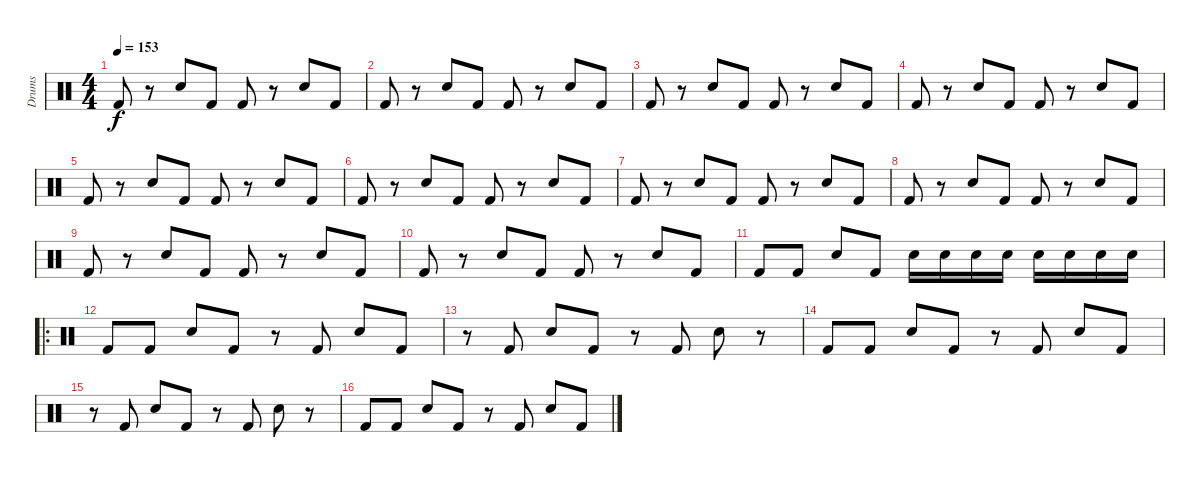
\track ("Drums" "Drums") {instrument percussion}
\staff {score}
\articulation defaults
\ts (4 4)
\tempo 153
\clef neutral
\ks c "Kick (hit) 2".8{dy f}
r.8 "Snare (hit) 2".8 "Kick (hit) 2".8 "Kick (hit) 2".8 r.8 "Snare (hit) 2".8 "Kick (hit) 2".8 |
"Kick (hit) 2".8 r.8 "Snare (hit) 2".8 "Kick (hit) 2".8 "Kick (hit) 2".8 r.8 "Snare (hit) 2".8 "Kick (hit) 2".8 |
"Kick (hit) 2".8 r.8 "Snare (hit) 2".8 "Kick (hit) 2".8 "Kick (hit) 2".8 r.8 "Snare (hit) 2".8 "Kick (hit) 2".8 |
"Kick (hit) 2".8 r.8 "Snare (hit) 2".8 "Kick (hit) 2".8 "Kick (hit) 2".8 r.8 "Snare (hit) 2".8 "Kick (hit) 2".8 |
"Kick (hit) 2".8 r.8 "Snare (hit) 2".8 "Kick (hit) 2".8 "Kick (hit) 2".8 r.8 "Snare (hit) 2".8 "Kick (hit) 2".8 |
"Kick (hit) 2".8 r.8 "Snare (hit) 2".8 "Kick (hit) 2".8 "Kick (hit) 2".8 r.8 "Snare (hit) 2".8 "Kick (hit) 2".8 |
"Kick (hit) 2".8 r.8 "Snare (hit) 2".8 "Kick (hit) 2".8 "Kick (hit) 2".8 r.8 "Snare (hit) 2".8 "Kick (hit) 2".8 |
"Kick (hit) 2".8 r.8 "Snare (hit) 2".8 "Kick (hit) 2".8 "Kick (hit) 2".8 r.8 "Snare (hit) 2".8 "Kick (hit) 2".8 |
"Kick (hit) 2".8 r.8 "Snare (hit) 2".8 "Kick (hit) 2".8 "Kick (hit) 2".8 r.8 "Snare (hit) 2".8 "Kick (hit) 2".8 |
"Kick (hit) 2".8 r.8 "Snare (hit) 2".8 "Kick (hit) 2".8 "Kick (hit) 2".8 r.8 "Snare (hit) 2".8 "Kick (hit) 2".8 |
"Kick (hit) 2".8 "Kick (hit) 2".8 "Snare (hit) 2".8 "Kick (hit) 2".8 "Snare (hit) 2".16 "Snare (hit) 2".16 "Snare (hit) 2".16 "Snare (hit) 2".16 "Snare (hit) 2".16 "Snare (hit) 2".16 "Snare (hit) 2".16 "Snare (hit) 2".16 |
\ro "Kick (hit) 2".8 "Kick (hit) 2".8 "Snare (hit) 2".8 "Kick (hit) 2".8
r.8 "Kick (hit) 2".8 "Snare (hit) 2".8 "Kick (hit) 2".8 |
r.8 "Kick (hit) 2".8 "Snare (hit) 2".8 "Kick (hit) 2".8 r.8 "Kick (hit) 2".8 "Snare (hit) 2".8 r.8 |
"Kick (hit) 2".8 "Kick (hit) 2".8 "Snare (hit) 2".8 "Kick (hit) 2".8 r.8 "Kick (hit) 2".8 "Snare (hit) 2".8 "Kick (hit) 2".8 |
r.8 "Kick (hit) 2".8 "Snare (hit) 2".8 "Kick (hit) 2".8 r.8 "Kick (hit) 2".8 "Snare (hit) 2".8 r.8 |
"Kick (hit) 2".8 "Kick (hit) 2".8 "Snare (hit) 2".8 "Kick (hit) 2".8 r.8 "Kick (hit) 2".8 "Snare (hit) 2".8 "Kick (hit) 2".8
